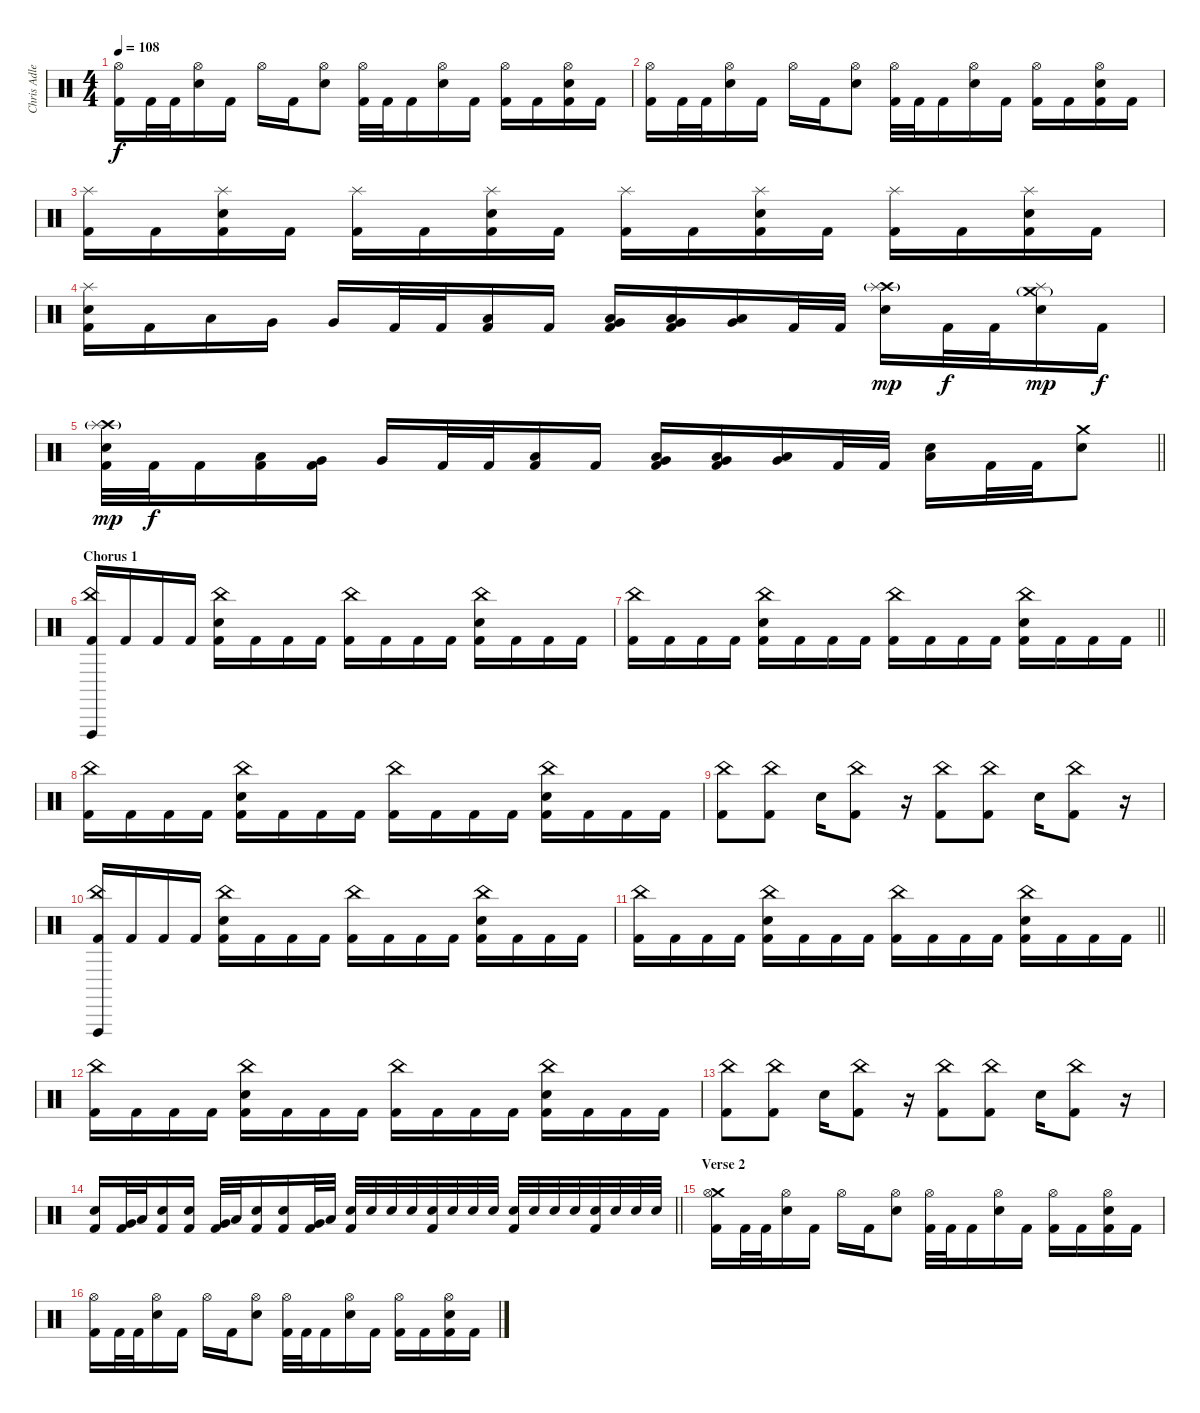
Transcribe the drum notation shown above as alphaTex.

\track ("Chris Adler" "Chris Adle") {instrument percussion}
\staff {score}
\articulation defaults
\ts (4 4)
\tempo 108
\clef neutral
\ks c
("Hi-Hat (open)" "Kick (hit) 2").16{dy f} "Kick (hit) 2".32 "Kick (hit) 2".32 ("Hi-Hat (open)" "Electric Snare (hit)").16 "Kick (hit) 2".16 "Hi-Hat (open)".16 "Kick (hit) 2".16 ("Hi-Hat (open)" "Electric Snare (hit)").8 ("Hi-Hat (open)" "Kick (hit) 2").32 "Kick (hit) 2".32 "Kick (hit) 2".16 ("Hi-Hat (open)" "Electric Snare (hit)").16 "Kick (hit) 2".16 ("Hi-Hat (open)" "Kick (hit) 2").16 "Kick (hit) 2".16 ("Hi-Hat (open)" "Electric Snare (hit)" "Kick (hit) 2").16 "Kick (hit) 2".16 |
("Hi-Hat (open)" "Kick (hit) 2").16 "Kick (hit) 2".32 "Kick (hit) 2".32 ("Hi-Hat (open)" "Electric Snare (hit)").16 "Kick (hit) 2".16 "Hi-Hat (open)".16 "Kick (hit) 2".16 ("Hi-Hat (open)" "Electric Snare (hit)").8 ("Hi-Hat (open)" "Kick (hit) 2").32 "Kick (hit) 2".32 "Kick (hit) 2".16 ("Hi-Hat (open)" "Electric Snare (hit)").16 "Kick (hit) 2".16 ("Hi-Hat (open)" "Kick (hit) 2").16 "Kick (hit) 2".16 ("Hi-Hat (open)" "Electric Snare (hit)" "Kick (hit) 2").16 "Kick (hit) 2".16 |
("Splash (hit)" "Kick (hit) 2").16 "Kick (hit) 2".16 ("Splash (hit)" "Electric Snare (hit)" "Kick (hit) 2").16 "Kick (hit) 2".16 ("Splash (hit)" "Kick (hit) 2").16 "Kick (hit) 2".16 ("Splash (hit)" "Electric Snare (hit)" "Kick (hit) 2").16 "Kick (hit) 2".16 ("Splash (hit)" "Kick (hit) 2").16 "Kick (hit) 2".16 ("Splash (hit)" "Electric Snare (hit)" "Kick (hit) 2").16 "Kick (hit) 2".16 ("Splash (hit)" "Kick (hit) 2").16 "Kick (hit) 2".16 ("Splash (hit)" "Electric Snare (hit)" "Kick (hit) 2").16 "Kick (hit) 2".16 |
("Splash (hit)" "Electric Snare (hit)" "Kick (hit) 2").16 "Kick (hit) 2".16 "Low Tom (hit)".16 "Very Low Tom (hit)".16 "Very Low Tom (hit)".16 "Kick (hit) 2".32 "Kick (hit) 2".32 ("Low Floor Tom (hit)" "Kick (hit) 2").16 "Kick (hit) 2".16 ("Very Low Tom (hit)" "Low Floor Tom (hit)" "Kick (hit) 2").16 ("Very Low Tom (hit)" "Low Floor Tom (hit)" "Kick (hit) 2").16 ("Very Low Tom (hit)" "Low Floor Tom (hit)").16 "Kick (hit) 2".32 "Kick (hit) 2".32 ("Crash high (hit)"{g} "Splash (hit)" "Electric Snare (hit)").16{dy mp} "Kick (hit) 2".32{dy f} "Kick (hit) 2".32 ("Crash medium (hit)"{g} "Splash (hit)" "Electric Snare (hit)").16{dy mp} "Kick (hit) 2".16{dy f} |
\barLineRight lightlight
("Crash high (hit)"{g} "Splash (hit)" "Electric Snare (hit)" "Kick (hit) 2").32{dy mp} "Kick (hit) 2".32{dy f} "Kick (hit) 2".16 ("Low Tom (hit)" "Kick (hit) 2").16 ("Very Low Tom (hit)" "Kick (hit) 2").16 "Very Low Tom (hit)".16 "Kick (hit) 2".32 "Kick (hit) 2".32 ("Low Floor Tom (hit)" "Kick (hit) 2").16 "Kick (hit) 2".16 ("Very Low Tom (hit)" "Low Floor Tom (hit)" "Kick (hit) 2").16 ("Very Low Tom (hit)" "Low Floor Tom (hit)" "Kick (hit) 2").16 ("Very Low Tom (hit)" "Low Floor Tom (hit)").16 "Kick (hit) 2".32 "Kick (hit) 2".32 ("Electric Snare (hit)" "Low Floor Tom (hit)").16 "Kick (hit) 2".32 "Kick (hit) 2".32 ("Crash medium (hit)" "Electric Snare (hit)").8 |
\section ("" "Chorus 1")
("China (hit)" "Vibraslap (hit)" "Kick (hit) 2").16 "Kick (hit) 2".16 "Kick (hit) 2".16 "Kick (hit) 2".16 ("China (hit)" "Electric Snare (hit)" "Kick (hit) 2").16 "Kick (hit) 2".16 "Kick (hit) 2".16 "Kick (hit) 2".16 ("China (hit)" "Kick (hit) 2").16 "Kick (hit) 2".16 "Kick (hit) 2".16 "Kick (hit) 2".16 ("China (hit)" "Electric Snare (hit)" "Kick (hit) 2").16 "Kick (hit) 2".16 "Kick (hit) 2".16 "Kick (hit) 2".16 |
\barLineRight lightlight
("China (hit)" "Kick (hit) 2").16 "Kick (hit) 2".16 "Kick (hit) 2".16 "Kick (hit) 2".16 ("China (hit)" "Electric Snare (hit)" "Kick (hit) 2").16 "Kick (hit) 2".16 "Kick (hit) 2".16 "Kick (hit) 2".16 ("China (hit)" "Kick (hit) 2").16 "Kick (hit) 2".16 "Kick (hit) 2".16 "Kick (hit) 2".16 ("China (hit)" "Electric Snare (hit)" "Kick (hit) 2").16 "Kick (hit) 2".16 "Kick (hit) 2".16 "Kick (hit) 2".16 |
("China (hit)" "Kick (hit) 2").16 "Kick (hit) 2".16 "Kick (hit) 2".16 "Kick (hit) 2".16 ("China (hit)" "Electric Snare (hit)" "Kick (hit) 2").16 "Kick (hit) 2".16 "Kick (hit) 2".16 "Kick (hit) 2".16 ("China (hit)" "Kick (hit) 2").16 "Kick (hit) 2".16 "Kick (hit) 2".16 "Kick (hit) 2".16 ("China (hit)" "Electric Snare (hit)" "Kick (hit) 2").16 "Kick (hit) 2".16 "Kick (hit) 2".16 "Kick (hit) 2".16 |
("China (hit)" "Kick (hit) 2").8 ("China (hit)" "Kick (hit) 2").8 "Electric Snare (hit)".16 ("China (hit)" "Kick (hit) 2").8 r.16 ("China (hit)" "Kick (hit) 2").8 ("China (hit)" "Kick (hit) 2").8 "Electric Snare (hit)".16 ("China (hit)" "Kick (hit) 2").8 r.16 |
("China (hit)" "Vibraslap (hit)" "Kick (hit) 2").16 "Kick (hit) 2".16 "Kick (hit) 2".16 "Kick (hit) 2".16 ("China (hit)" "Electric Snare (hit)" "Kick (hit) 2").16 "Kick (hit) 2".16 "Kick (hit) 2".16 "Kick (hit) 2".16 ("China (hit)" "Kick (hit) 2").16 "Kick (hit) 2".16 "Kick (hit) 2".16 "Kick (hit) 2".16 ("China (hit)" "Electric Snare (hit)" "Kick (hit) 2").16 "Kick (hit) 2".16 "Kick (hit) 2".16 "Kick (hit) 2".16 |
\barLineRight lightlight
("China (hit)" "Kick (hit) 2").16 "Kick (hit) 2".16 "Kick (hit) 2".16 "Kick (hit) 2".16 ("China (hit)" "Electric Snare (hit)" "Kick (hit) 2").16 "Kick (hit) 2".16 "Kick (hit) 2".16 "Kick (hit) 2".16 ("China (hit)" "Kick (hit) 2").16 "Kick (hit) 2".16 "Kick (hit) 2".16 "Kick (hit) 2".16 ("China (hit)" "Electric Snare (hit)" "Kick (hit) 2").16 "Kick (hit) 2".16 "Kick (hit) 2".16 "Kick (hit) 2".16 |
("China (hit)" "Kick (hit) 2").16 "Kick (hit) 2".16 "Kick (hit) 2".16 "Kick (hit) 2".16 ("China (hit)" "Electric Snare (hit)" "Kick (hit) 2").16 "Kick (hit) 2".16 "Kick (hit) 2".16 "Kick (hit) 2".16 ("China (hit)" "Kick (hit) 2").16 "Kick (hit) 2".16 "Kick (hit) 2".16 "Kick (hit) 2".16 ("China (hit)" "Electric Snare (hit)" "Kick (hit) 2").16 "Kick (hit) 2".16 "Kick (hit) 2".16 "Kick (hit) 2".16 |
("China (hit)" "Kick (hit) 2").8 ("China (hit)" "Kick (hit) 2").8 "Electric Snare (hit)".16 ("China (hit)" "Kick (hit) 2").8 r.16 ("China (hit)" "Kick (hit) 2").8 ("China (hit)" "Kick (hit) 2").8 "Electric Snare (hit)".16 ("China (hit)" "Kick (hit) 2").8 r.16 |
\barLineRight lightlight
("Electric Snare (hit)" "Kick (hit) 2").16 ("Very Low Tom (hit)" "Kick (hit) 2").32 "Low Floor Tom (hit)".32 ("Electric Snare (hit)" "Kick (hit) 2").16 ("Electric Snare (hit)" "Kick (hit) 2").16 ("Very Low Tom (hit)" "Kick (hit) 2").32 "Low Floor Tom (hit)".32 ("Electric Snare (hit)" "Kick (hit) 2").16 ("Electric Snare (hit)" "Kick (hit) 2").16 ("Very Low Tom (hit)" "Kick (hit) 2").32 "Low Floor Tom (hit)".32 ("Electric Snare (hit)" "Kick (hit) 2").32 "Electric Snare (hit)".32 "Electric Snare (hit)".32 "Electric Snare (hit)".32 ("Electric Snare (hit)" "Kick (hit) 2").32 "Electric Snare (hit)".32 "Electric Snare (hit)".32 "Electric Snare (hit)".32 ("Electric Snare (hit)" "Kick (hit) 2").32 "Electric Snare (hit)".32 "Electric Snare (hit)".32 "Electric Snare (hit)".32 ("Electric Snare (hit)" "Kick (hit) 2").32 "Electric Snare (hit)".32 "Electric Snare (hit)".32 "Electric Snare (hit)".32 |
\section ("" "Verse 2")
("Crash medium (hit)" "Hi-Hat (open)" "Kick (hit) 2").16 "Kick (hit) 2".32 "Kick (hit) 2".32 ("Hi-Hat (open)" "Electric Snare (hit)").16 "Kick (hit) 2".16 "Hi-Hat (open)".16 "Kick (hit) 2".16 ("Hi-Hat (open)" "Electric Snare (hit)").8 ("Hi-Hat (open)" "Kick (hit) 2").32 "Kick (hit) 2".32 "Kick (hit) 2".16 ("Hi-Hat (open)" "Electric Snare (hit)").16 "Kick (hit) 2".16 ("Hi-Hat (open)" "Kick (hit) 2").16 "Kick (hit) 2".16 ("Hi-Hat (open)" "Electric Snare (hit)" "Kick (hit) 2").16 "Kick (hit) 2".16 |
("Hi-Hat (open)" "Kick (hit) 2").16 "Kick (hit) 2".32 "Kick (hit) 2".32 ("Hi-Hat (open)" "Electric Snare (hit)").16 "Kick (hit) 2".16 "Hi-Hat (open)".16 "Kick (hit) 2".16 ("Hi-Hat (open)" "Electric Snare (hit)").8 ("Hi-Hat (open)" "Kick (hit) 2").32 "Kick (hit) 2".32 "Kick (hit) 2".16 ("Hi-Hat (open)" "Electric Snare (hit)").16 "Kick (hit) 2".16 ("Hi-Hat (open)" "Kick (hit) 2").16 "Kick (hit) 2".16 ("Hi-Hat (open)" "Electric Snare (hit)" "Kick (hit) 2").16 "Kick (hit) 2".16
